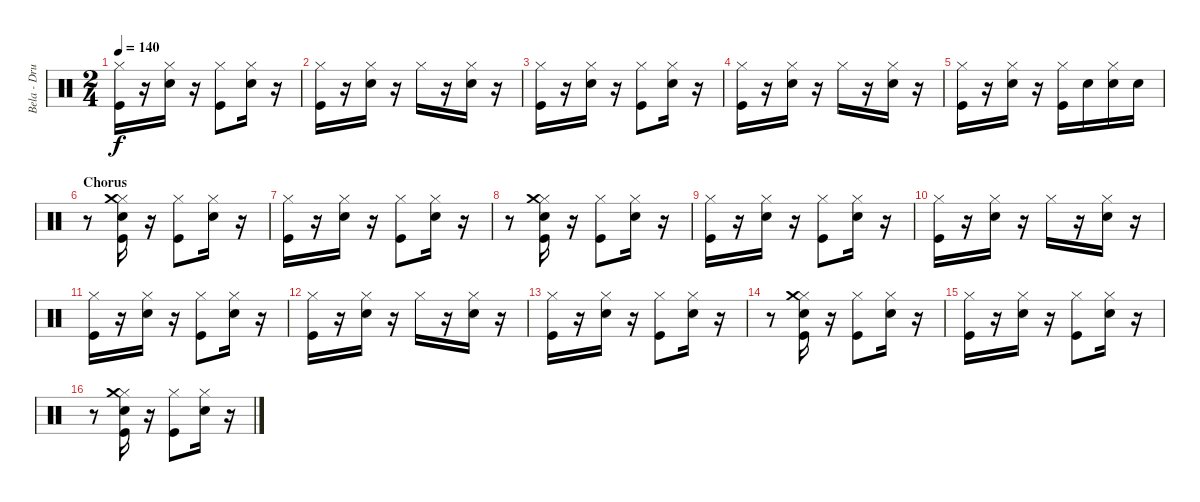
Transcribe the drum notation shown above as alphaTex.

\track ("Bela - Drums" "Bela - Dru") {instrument percussion}
\staff {score}
\articulation defaults
\ts (2 4)
\tempo 140
\clef neutral
\ks c
("Kick (hit)" "Hi-Hat (closed)").16{dy f} r.16 ("Electric Snare (hit)" "Hi-Hat (closed)").16 r.16 ("Hi-Hat (closed)" "Kick (hit)").8 ("Electric Snare (hit)" "Hi-Hat (closed)").16 r.16 |
("Kick (hit)" "Hi-Hat (closed)").16 r.16 ("Electric Snare (hit)" "Hi-Hat (closed)").16 r.16 "Hi-Hat (closed)".16 r.16 ("Electric Snare (hit)" "Hi-Hat (closed)").16 r.16 |
("Kick (hit)" "Hi-Hat (closed)").16 r.16 ("Electric Snare (hit)" "Hi-Hat (closed)").16 r.16 ("Hi-Hat (closed)" "Kick (hit)").8 ("Electric Snare (hit)" "Hi-Hat (closed)").16 r.16 |
("Kick (hit)" "Hi-Hat (closed)").16 r.16 ("Electric Snare (hit)" "Hi-Hat (closed)").16 r.16 "Hi-Hat (closed)".16 r.16 ("Electric Snare (hit)" "Hi-Hat (closed)").16 r.16 |
("Kick (hit)" "Hi-Hat (closed)").16 r.16 ("Electric Snare (hit)" "Hi-Hat (closed)").16 r.16 ("Hi-Hat (closed)" "Kick (hit)").16 "Electric Snare (hit)".16 ("Electric Snare (hit)" "Hi-Hat (closed)").16 "Electric Snare (hit)".16 |
\section ("" "Chorus")
r.8 ("Electric Snare (hit)" "Hi-Hat (closed)" "Kick (hit)" "Crash medium (hit)").16 r.16 ("Hi-Hat (closed)" "Kick (hit)").8 ("Electric Snare (hit)" "Hi-Hat (closed)").16 r.16 |
("Kick (hit)" "Hi-Hat (closed)").16 r.16 ("Electric Snare (hit)" "Hi-Hat (closed)").16 r.16 ("Hi-Hat (closed)" "Kick (hit)").8 ("Electric Snare (hit)" "Hi-Hat (closed)").16 r.16 |
r.8 ("Electric Snare (hit)" "Hi-Hat (closed)" "Kick (hit)" "Crash medium (hit)").16 r.16 ("Hi-Hat (closed)" "Kick (hit)").8 ("Electric Snare (hit)" "Hi-Hat (closed)").16 r.16 |
("Kick (hit)" "Hi-Hat (closed)").16 r.16 ("Electric Snare (hit)" "Hi-Hat (closed)").16 r.16 ("Hi-Hat (closed)" "Kick (hit)").8 ("Electric Snare (hit)" "Hi-Hat (closed)").16 r.16 |
("Kick (hit)" "Hi-Hat (closed)").16 r.16 ("Electric Snare (hit)" "Hi-Hat (closed)").16 r.16 "Hi-Hat (closed)".16 r.16 ("Electric Snare (hit)" "Hi-Hat (closed)").16 r.16 |
("Kick (hit)" "Hi-Hat (closed)").16 r.16 ("Electric Snare (hit)" "Hi-Hat (closed)").16 r.16 ("Hi-Hat (closed)" "Kick (hit)").8 ("Electric Snare (hit)" "Hi-Hat (closed)").16 r.16 |
("Kick (hit)" "Hi-Hat (closed)").16 r.16 ("Electric Snare (hit)" "Hi-Hat (closed)").16 r.16 "Hi-Hat (closed)".16 r.16 ("Electric Snare (hit)" "Hi-Hat (closed)").16 r.16 |
("Kick (hit)" "Hi-Hat (closed)").16 r.16 ("Electric Snare (hit)" "Hi-Hat (closed)").16 r.16 ("Hi-Hat (closed)" "Kick (hit)").8 ("Electric Snare (hit)" "Hi-Hat (closed)").16 r.16 |
r.8 ("Electric Snare (hit)" "Hi-Hat (closed)" "Kick (hit)" "Crash medium (hit)").16 r.16 ("Hi-Hat (closed)" "Kick (hit)").8 ("Electric Snare (hit)" "Hi-Hat (closed)").16 r.16 |
("Kick (hit)" "Hi-Hat (closed)").16 r.16 ("Electric Snare (hit)" "Hi-Hat (closed)").16 r.16 ("Hi-Hat (closed)" "Kick (hit)").8 ("Electric Snare (hit)" "Hi-Hat (closed)").16 r.16 |
r.8 ("Electric Snare (hit)" "Hi-Hat (closed)" "Kick (hit)" "Crash medium (hit)").16 r.16 ("Hi-Hat (closed)" "Kick (hit)").8 ("Electric Snare (hit)" "Hi-Hat (closed)").16 r.16
